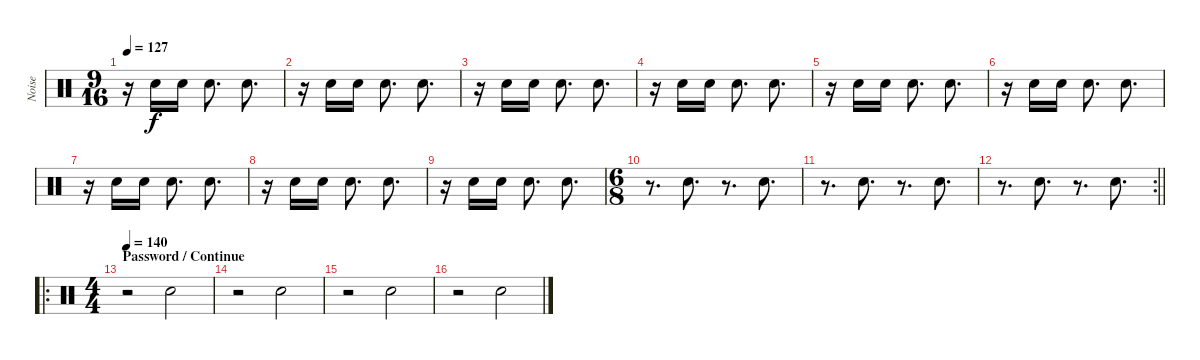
\track ("Noise" "Noise") {instrument percussion}
\staff {score}
\articulation defaults
\ts (9 16)
\tempo 127
\clef neutral
\ks c
r.16{dy f} "Snare (hit) 2".16 "Snare (hit) 2".16 "Snare (hit) 2".8{d} "Snare (hit) 2".8{d} |
r.16 "Snare (hit) 2".16 "Snare (hit) 2".16 "Snare (hit) 2".8{d} "Snare (hit) 2".8{d} |
r.16 "Snare (hit) 2".16 "Snare (hit) 2".16 "Snare (hit) 2".8{d} "Snare (hit) 2".8{d} |
r.16 "Snare (hit) 2".16 "Snare (hit) 2".16 "Snare (hit) 2".8{d} "Snare (hit) 2".8{d} |
r.16 "Snare (hit) 2".16 "Snare (hit) 2".16 "Snare (hit) 2".8{d} "Snare (hit) 2".8{d} |
r.16 "Snare (hit) 2".16 "Snare (hit) 2".16 "Snare (hit) 2".8{d} "Snare (hit) 2".8{d} |
r.16 "Snare (hit) 2".16 "Snare (hit) 2".16 "Snare (hit) 2".8{d} "Snare (hit) 2".8{d} |
r.16 "Snare (hit) 2".16 "Snare (hit) 2".16 "Snare (hit) 2".8{d} "Snare (hit) 2".8{d} |
r.16 "Snare (hit) 2".16 "Snare (hit) 2".16 "Snare (hit) 2".8{d} "Snare (hit) 2".8{d} |
\ts (6 8)
r.8{d} "Snare (hit) 2".8{d} r.8{d} "Snare (hit) 2".8{d} |
r.8{d} "Snare (hit) 2".8{d} r.8{d} "Snare (hit) 2".8{d} |
\rc 2
\barLineRight lightlight
r.8{d} "Snare (hit) 2".8{d} r.8{d} "Snare (hit) 2".8{d} |
\ro
\ts (4 4)
\section ("" "Password / Continue")
\tempo 140
r.2{volume 13} "Snare (hit) 2".2 |
r.2 "Snare (hit) 2".2 |
r.2 "Snare (hit) 2".2 |
r.2 "Snare (hit) 2".2
